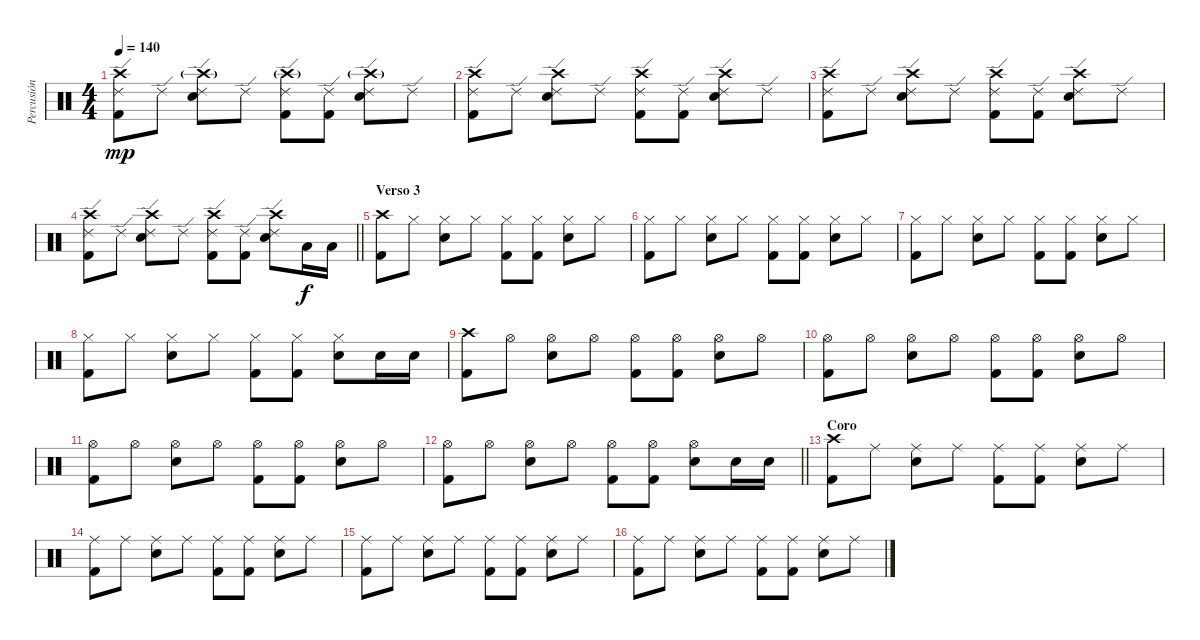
\track ("Percusión" "Percusión") {instrument percussion}
\staff {score}
\articulation defaults
\ts (4 4)
\tempo 140
\clef neutral
\ks c
("Crash high (hit)" "Ride (edge) 2" "Kick (hit) 2").8{dy mp} "Ride (edge) 2".8 ("Crash high (hit)"{g} "Ride (edge) 2" "Electric Snare (hit)").8 "Ride (edge) 2".8 ("Crash high (hit)"{g} "Ride (edge) 2" "Kick (hit) 2").8 ("Ride (edge) 2" "Kick (hit) 2").8 ("Crash high (hit)"{g} "Ride (edge) 2" "Electric Snare (hit)").8 "Ride (edge) 2".8 |
("Crash high (hit)" "Ride (edge) 2" "Kick (hit) 2").8 "Ride (edge) 2".8 ("Crash high (hit)" "Ride (edge) 2" "Electric Snare (hit)").8 "Ride (edge) 2".8 ("Crash high (hit)" "Ride (edge) 2" "Kick (hit) 2").8 ("Ride (edge) 2" "Kick (hit) 2").8 ("Crash high (hit)" "Ride (edge) 2" "Electric Snare (hit)").8 "Ride (edge) 2".8 |
("Crash high (hit)" "Ride (edge) 2" "Kick (hit) 2").8 "Ride (edge) 2".8 ("Crash high (hit)" "Ride (edge) 2" "Electric Snare (hit)").8 "Ride (edge) 2".8 ("Crash high (hit)" "Ride (edge) 2" "Kick (hit) 2").8 ("Ride (edge) 2" "Kick (hit) 2").8 ("Crash high (hit)" "Ride (edge) 2" "Electric Snare (hit)").8 "Ride (edge) 2".8 |
\barLineRight lightlight
("Crash high (hit)" "Ride (edge) 2" "Kick (hit) 2").8 "Ride (edge) 2".8 ("Crash high (hit)" "Ride (edge) 2" "Electric Snare (hit)").8 "Ride (edge) 2".8 ("Crash high (hit)" "Ride (edge) 2" "Kick (hit) 2").8 ("Ride (edge) 2" "Kick (hit) 2").8 ("Crash high (hit)" "Ride (edge) 2" "Electric Snare (hit)").8 "Low Tom (hit)".16{dy f} "Low Tom (hit)".16 |
\section ("" "Verso 3")
("Crash high (hit)" "Kick (hit) 2").8 "Hi-Hat (closed)".8 ("Hi-Hat (closed)" "Electric Snare (hit)").8 "Hi-Hat (closed)".8 ("Hi-Hat (closed)" "Kick (hit) 2").8 ("Hi-Hat (closed)" "Kick (hit) 2").8 ("Hi-Hat (closed)" "Electric Snare (hit)").8 "Hi-Hat (closed)".8 |
("Hi-Hat (closed)" "Kick (hit) 2").8 "Hi-Hat (closed)".8 ("Hi-Hat (closed)" "Electric Snare (hit)").8 "Hi-Hat (closed)".8 ("Hi-Hat (closed)" "Kick (hit) 2").8 ("Hi-Hat (closed)" "Kick (hit) 2").8 ("Hi-Hat (closed)" "Electric Snare (hit)").8 "Hi-Hat (closed)".8 |
("Hi-Hat (closed)" "Kick (hit) 2").8 "Hi-Hat (closed)".8 ("Hi-Hat (closed)" "Electric Snare (hit)").8 "Hi-Hat (closed)".8 ("Hi-Hat (closed)" "Kick (hit) 2").8 ("Hi-Hat (closed)" "Kick (hit) 2").8 ("Hi-Hat (closed)" "Electric Snare (hit)").8 "Hi-Hat (closed)".8 |
("Hi-Hat (closed)" "Kick (hit) 2").8 "Hi-Hat (closed)".8 ("Hi-Hat (closed)" "Electric Snare (hit)").8 "Hi-Hat (closed)".8 ("Hi-Hat (closed)" "Kick (hit) 2").8 ("Hi-Hat (closed)" "Kick (hit) 2").8 ("Hi-Hat (closed)" "Electric Snare (hit)").8 "Electric Snare (hit)".16 "Electric Snare (hit)".16 |
("Crash high (hit)" "Kick (hit) 2").8 "Hi-Hat (open)".8 ("Hi-Hat (open)" "Electric Snare (hit)").8 "Hi-Hat (open)".8 ("Hi-Hat (open)" "Kick (hit) 2").8 ("Hi-Hat (open)" "Kick (hit) 2").8 ("Hi-Hat (open)" "Electric Snare (hit)").8 "Hi-Hat (open)".8 |
("Hi-Hat (open)" "Kick (hit) 2").8 "Hi-Hat (open)".8 ("Hi-Hat (open)" "Electric Snare (hit)").8 "Hi-Hat (open)".8 ("Hi-Hat (open)" "Kick (hit) 2").8 ("Hi-Hat (open)" "Kick (hit) 2").8 ("Hi-Hat (open)" "Electric Snare (hit)").8 "Hi-Hat (open)".8 |
("Hi-Hat (open)" "Kick (hit) 2").8 "Hi-Hat (open)".8 ("Hi-Hat (open)" "Electric Snare (hit)").8 "Hi-Hat (open)".8 ("Hi-Hat (open)" "Kick (hit) 2").8 ("Hi-Hat (open)" "Kick (hit) 2").8 ("Hi-Hat (open)" "Electric Snare (hit)").8 "Hi-Hat (open)".8 |
\barLineRight lightlight
("Hi-Hat (open)" "Kick (hit) 2").8 "Hi-Hat (open)".8 ("Hi-Hat (open)" "Electric Snare (hit)").8 "Hi-Hat (open)".8 ("Hi-Hat (open)" "Kick (hit) 2").8 ("Hi-Hat (open)" "Kick (hit) 2").8 ("Hi-Hat (open)" "Electric Snare (hit)").8 "Electric Snare (hit)".16 "Electric Snare (hit)".16 |
\section ("" "Coro")
("Crash high (hit)" "Kick (hit) 2").8 "Ride (middle)".8 ("Ride (middle)" "Electric Snare (hit)").8 "Ride (middle)".8 ("Ride (middle)" "Kick (hit) 2").8 ("Ride (middle)" "Kick (hit) 2").8 ("Ride (middle)" "Electric Snare (hit)").8 "Ride (middle)".8 |
("Ride (middle)" "Kick (hit) 2").8 "Ride (middle)".8 ("Ride (middle)" "Electric Snare (hit)").8 "Ride (middle)".8 ("Ride (middle)" "Kick (hit) 2").8 ("Ride (middle)" "Kick (hit) 2").8 ("Ride (middle)" "Electric Snare (hit)").8 "Ride (middle)".8 |
("Ride (middle)" "Kick (hit) 2").8 "Ride (middle)".8 ("Ride (middle)" "Electric Snare (hit)").8 "Ride (middle)".8 ("Ride (middle)" "Kick (hit) 2").8 ("Ride (middle)" "Kick (hit) 2").8 ("Ride (middle)" "Electric Snare (hit)").8 "Ride (middle)".8 |
("Ride (middle)" "Kick (hit) 2").8 "Ride (middle)".8 ("Ride (middle)" "Electric Snare (hit)").8 "Ride (middle)".8 ("Ride (middle)" "Kick (hit) 2").8 ("Ride (middle)" "Kick (hit) 2").8 ("Ride (middle)" "Electric Snare (hit)").8 "Ride (middle)".8
